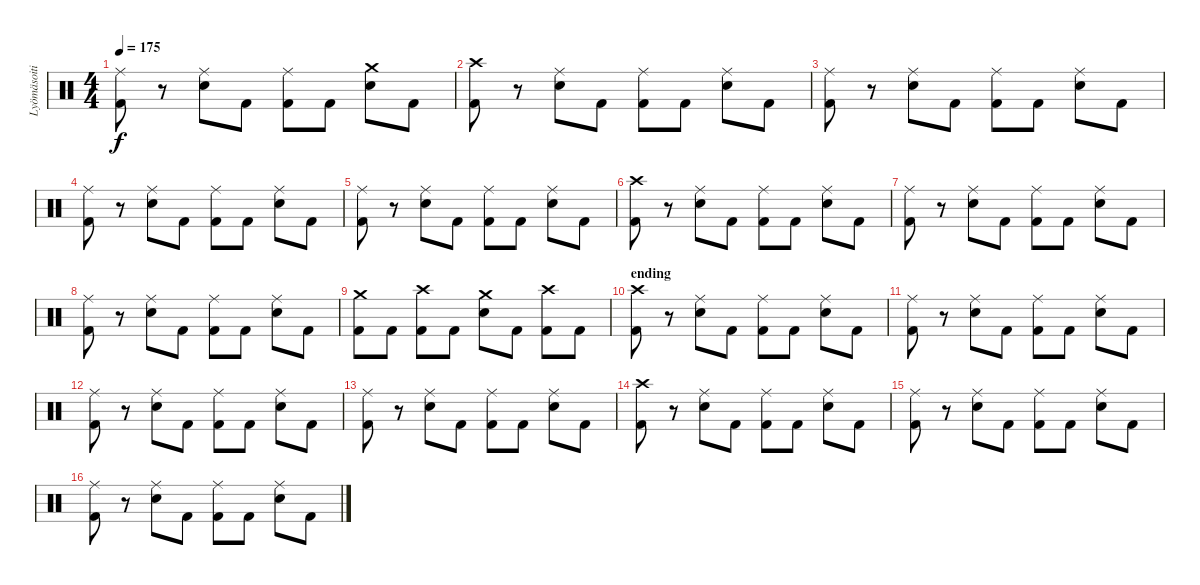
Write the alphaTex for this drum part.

\track ("Lyömäsoitin" "Lyömäsoiti") {instrument percussion}
\staff {score}
\articulation defaults
\ts (4 4)
\tempo 175
\clef neutral
\ks c
("Ride (middle)" "Kick (hit) 2").8{dy f} r.8 ("Ride (middle)" "Electric Snare (hit)").8 "Kick (hit) 2".8 ("Ride (middle)" "Kick (hit) 2").8 "Kick (hit) 2".8 ("Crash medium (hit)" "Electric Snare (hit)").8 "Kick (hit) 2".8 |
("Crash high (hit)" "Kick (hit) 2").8 r.8 ("Ride (middle)" "Electric Snare (hit)").8 "Kick (hit) 2".8 ("Ride (middle)" "Kick (hit) 2").8 "Kick (hit) 2".8 ("Ride (middle)" "Electric Snare (hit)").8 "Kick (hit) 2".8 |
("Ride (middle)" "Kick (hit) 2").8 r.8 ("Ride (middle)" "Electric Snare (hit)").8 "Kick (hit) 2".8 ("Ride (middle)" "Kick (hit) 2").8 "Kick (hit) 2".8 ("Ride (middle)" "Electric Snare (hit)").8 "Kick (hit) 2".8 |
("Ride (middle)" "Kick (hit) 2").8 r.8 ("Ride (middle)" "Electric Snare (hit)").8 "Kick (hit) 2".8 ("Ride (middle)" "Kick (hit) 2").8 "Kick (hit) 2".8 ("Ride (middle)" "Electric Snare (hit)").8 "Kick (hit) 2".8 |
("Ride (middle)" "Kick (hit) 2").8 r.8 ("Ride (middle)" "Electric Snare (hit)").8 "Kick (hit) 2".8 ("Ride (middle)" "Kick (hit) 2").8 "Kick (hit) 2".8 ("Ride (middle)" "Electric Snare (hit)").8 "Kick (hit) 2".8 |
("Crash high (hit)" "Kick (hit) 2").8 r.8 ("Ride (middle)" "Electric Snare (hit)").8 "Kick (hit) 2".8 ("Ride (middle)" "Kick (hit) 2").8 "Kick (hit) 2".8 ("Ride (middle)" "Electric Snare (hit)").8 "Kick (hit) 2".8 |
("Ride (middle)" "Kick (hit) 2").8 r.8 ("Ride (middle)" "Electric Snare (hit)").8 "Kick (hit) 2".8 ("Ride (middle)" "Kick (hit) 2").8 "Kick (hit) 2".8 ("Ride (middle)" "Electric Snare (hit)").8 "Kick (hit) 2".8 |
("Ride (middle)" "Kick (hit) 2").8 r.8 ("Ride (middle)" "Electric Snare (hit)").8 "Kick (hit) 2".8 ("Ride (middle)" "Kick (hit) 2").8 "Kick (hit) 2".8 ("Ride (middle)" "Electric Snare (hit)").8 "Kick (hit) 2".8 |
("Crash medium (hit)" "Kick (hit) 2").8 "Kick (hit) 2".8 ("Crash high (hit)" "Kick (hit) 2").8 "Kick (hit) 2".8 ("Crash medium (hit)" "Electric Snare (hit)").8 "Kick (hit) 2".8 ("Crash high (hit)" "Kick (hit) 2").8 "Kick (hit) 2".8 |
\section ("" "ending")
("Crash high (hit)" "Kick (hit) 2").8 r.8 ("Ride (middle)" "Electric Snare (hit)").8 "Kick (hit) 2".8 ("Ride (middle)" "Kick (hit) 2").8 "Kick (hit) 2".8 ("Ride (middle)" "Electric Snare (hit)").8 "Kick (hit) 2".8 |
("Ride (middle)" "Kick (hit) 2").8 r.8 ("Ride (middle)" "Electric Snare (hit)").8 "Kick (hit) 2".8 ("Ride (middle)" "Kick (hit) 2").8 "Kick (hit) 2".8 ("Ride (middle)" "Electric Snare (hit)").8 "Kick (hit) 2".8 |
("Ride (middle)" "Kick (hit) 2").8 r.8 ("Ride (middle)" "Electric Snare (hit)").8 "Kick (hit) 2".8 ("Ride (middle)" "Kick (hit) 2").8 "Kick (hit) 2".8 ("Ride (middle)" "Electric Snare (hit)").8 "Kick (hit) 2".8 |
("Ride (middle)" "Kick (hit) 2").8 r.8 ("Ride (middle)" "Electric Snare (hit)").8 "Kick (hit) 2".8 ("Ride (middle)" "Kick (hit) 2").8 "Kick (hit) 2".8 ("Ride (middle)" "Electric Snare (hit)").8 "Kick (hit) 2".8 |
("Crash high (hit)" "Kick (hit) 2").8 r.8 ("Ride (middle)" "Electric Snare (hit)").8 "Kick (hit) 2".8 ("Ride (middle)" "Kick (hit) 2").8 "Kick (hit) 2".8 ("Ride (middle)" "Electric Snare (hit)").8 "Kick (hit) 2".8 |
("Ride (middle)" "Kick (hit) 2").8 r.8 ("Ride (middle)" "Electric Snare (hit)").8 "Kick (hit) 2".8 ("Ride (middle)" "Kick (hit) 2").8 "Kick (hit) 2".8 ("Ride (middle)" "Electric Snare (hit)").8 "Kick (hit) 2".8 |
("Ride (middle)" "Kick (hit) 2").8 r.8 ("Ride (middle)" "Electric Snare (hit)").8 "Kick (hit) 2".8 ("Ride (middle)" "Kick (hit) 2").8 "Kick (hit) 2".8 ("Ride (middle)" "Electric Snare (hit)").8 "Kick (hit) 2".8
